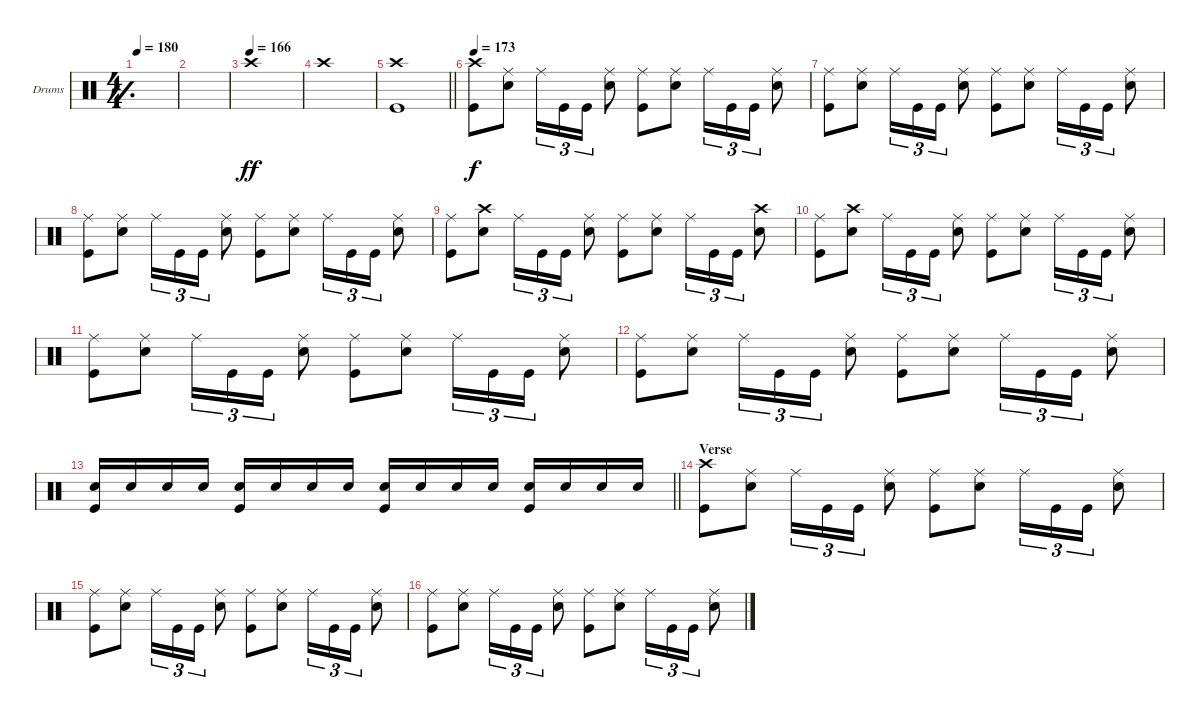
\bracketExtendMode groupsimilarinstruments
\firstSystemTrackNameOrientation horizontal
\otherSystemsTrackNameOrientation horizontal
\track ("Drums" "Drums") {instrument percussion}
\staff {score}
\articulation defaults
\ts (4 4)
\tempo 180
\clef neutral
\simile simple
\ks c
|
|
\tempo 166
\simile none "Crash high (hit)".1{dy ff}
|
"Crash high (hit)".1 |
\barLineRight lightlight
("Crash high (hit)" "Kick (hit)").1 |
\tempo 173
("Crash high (hit)" "Kick (hit)").8{dy f} ("Snare (hit) 2" "Ride (middle)").8 "Ride (middle)".16{tu (3 2)} "Kick (hit)".16{tu (3 2)} "Kick (hit)".16{tu (3 2)} ("Snare (hit) 2" "Ride (middle)").8 ("Kick (hit)" "Ride (middle)").8 ("Snare (hit) 2" "Ride (middle)").8 "Ride (middle)".16{tu (3 2)} "Kick (hit)".16{tu (3 2)} "Kick (hit)".16{tu (3 2)} ("Snare (hit) 2" "Ride (middle)").8 |
("Kick (hit)" "Ride (middle)").8 ("Snare (hit) 2" "Ride (middle)").8 "Ride (middle)".16{tu (3 2)} "Kick (hit)".16{tu (3 2)} "Kick (hit)".16{tu (3 2)} ("Snare (hit) 2" "Ride (middle)").8 ("Kick (hit)" "Ride (middle)").8 ("Snare (hit) 2" "Ride (middle)").8 "Ride (middle)".16{tu (3 2)} "Kick (hit)".16{tu (3 2)} "Kick (hit)".16{tu (3 2)} ("Snare (hit) 2" "Ride (middle)").8 |
("Kick (hit)" "Ride (middle)").8 ("Snare (hit) 2" "Ride (middle)").8 "Ride (middle)".16{tu (3 2)} "Kick (hit)".16{tu (3 2)} "Kick (hit)".16{tu (3 2)} ("Snare (hit) 2" "Ride (middle)").8 ("Kick (hit)" "Ride (middle)").8 ("Snare (hit) 2" "Ride (middle)").8 "Ride (middle)".16{tu (3 2)} "Kick (hit)".16{tu (3 2)} "Kick (hit)".16{tu (3 2)} ("Snare (hit) 2" "Ride (middle)").8 |
("Kick (hit)" "Ride (middle)").8 ("Snare (hit) 2" "Crash high (hit)").8 "Ride (middle)".16{tu (3 2)} "Kick (hit)".16{tu (3 2)} "Kick (hit)".16{tu (3 2)} ("Snare (hit) 2" "Ride (middle)").8 ("Kick (hit)" "Ride (middle)").8 ("Snare (hit) 2" "Ride (middle)").8 "Ride (middle)".16{tu (3 2)} "Kick (hit)".16{tu (3 2)} "Kick (hit)".16{tu (3 2)} ("Snare (hit) 2" "Crash high (hit)").8 |
("Kick (hit)" "Ride (middle)").8 ("Snare (hit) 2" "Crash high (hit)").8 "Ride (middle)".16{tu (3 2)} "Kick (hit)".16{tu (3 2)} "Kick (hit)".16{tu (3 2)} ("Snare (hit) 2" "Ride (middle)").8 ("Kick (hit)" "Ride (middle)").8 ("Snare (hit) 2" "Ride (middle)").8 "Ride (middle)".16{tu (3 2)} "Kick (hit)".16{tu (3 2)} "Kick (hit)".16{tu (3 2)} ("Snare (hit) 2" "Ride (middle)").8 |
("Kick (hit)" "Ride (middle)").8 ("Snare (hit) 2" "Ride (middle)").8 "Ride (middle)".16{tu (3 2)} "Kick (hit)".16{tu (3 2)} "Kick (hit)".16{tu (3 2)} ("Snare (hit) 2" "Ride (middle)").8 ("Kick (hit)" "Ride (middle)").8 ("Snare (hit) 2" "Ride (middle)").8 "Ride (middle)".16{tu (3 2)} "Kick (hit)".16{tu (3 2)} "Kick (hit)".16{tu (3 2)} ("Snare (hit) 2" "Ride (middle)").8 |
("Kick (hit)" "Ride (middle)").8 ("Snare (hit) 2" "Ride (middle)").8 "Ride (middle)".16{tu (3 2)} "Kick (hit)".16{tu (3 2)} "Kick (hit)".16{tu (3 2)} ("Snare (hit) 2" "Ride (middle)").8 ("Kick (hit)" "Ride (middle)").8 ("Snare (hit) 2" "Ride (middle)").8 "Ride (middle)".16{tu (3 2)} "Kick (hit)".16{tu (3 2)} "Kick (hit)".16{tu (3 2)} ("Snare (hit) 2" "Ride (middle)").8 |
\barLineRight lightlight
("Snare (hit) 2" "Kick (hit)").16 "Snare (hit) 2".16 "Snare (hit) 2".16 "Snare (hit) 2".16 ("Snare (hit) 2" "Kick (hit)").16 "Snare (hit) 2".16 "Snare (hit) 2".16 "Snare (hit) 2".16 ("Snare (hit) 2" "Kick (hit)").16 "Snare (hit) 2".16 "Snare (hit) 2".16 "Snare (hit) 2".16 ("Snare (hit) 2" "Kick (hit)").16 "Snare (hit) 2".16 "Snare (hit) 2".16 "Snare (hit) 2".16 |
\section ("" "Verse")
("Crash high (hit)" "Kick (hit)").8 ("Snare (hit) 2" "Ride (middle)").8 "Ride (middle)".16{tu (3 2)} "Kick (hit)".16{tu (3 2)} "Kick (hit)".16{tu (3 2)} ("Snare (hit) 2" "Ride (middle)").8 ("Kick (hit)" "Ride (middle)").8 ("Snare (hit) 2" "Ride (middle)").8 "Ride (middle)".16{tu (3 2)} "Kick (hit)".16{tu (3 2)} "Kick (hit)".16{tu (3 2)} ("Snare (hit) 2" "Ride (middle)").8 |
("Kick (hit)" "Ride (middle)").8 ("Snare (hit) 2" "Ride (middle)").8 "Ride (middle)".16{tu (3 2)} "Kick (hit)".16{tu (3 2)} "Kick (hit)".16{tu (3 2)} ("Snare (hit) 2" "Ride (middle)").8 ("Kick (hit)" "Ride (middle)").8 ("Snare (hit) 2" "Ride (middle)").8 "Ride (middle)".16{tu (3 2)} "Kick (hit)".16{tu (3 2)} "Kick (hit)".16{tu (3 2)} ("Snare (hit) 2" "Ride (middle)").8 |
("Kick (hit)" "Ride (middle)").8 ("Snare (hit) 2" "Ride (middle)").8 "Ride (middle)".16{tu (3 2)} "Kick (hit)".16{tu (3 2)} "Kick (hit)".16{tu (3 2)} ("Snare (hit) 2" "Ride (middle)").8 ("Kick (hit)" "Ride (middle)").8 ("Snare (hit) 2" "Ride (middle)").8 "Ride (middle)".16{tu (3 2)} "Kick (hit)".16{tu (3 2)} "Kick (hit)".16{tu (3 2)} ("Snare (hit) 2" "Ride (middle)").8
